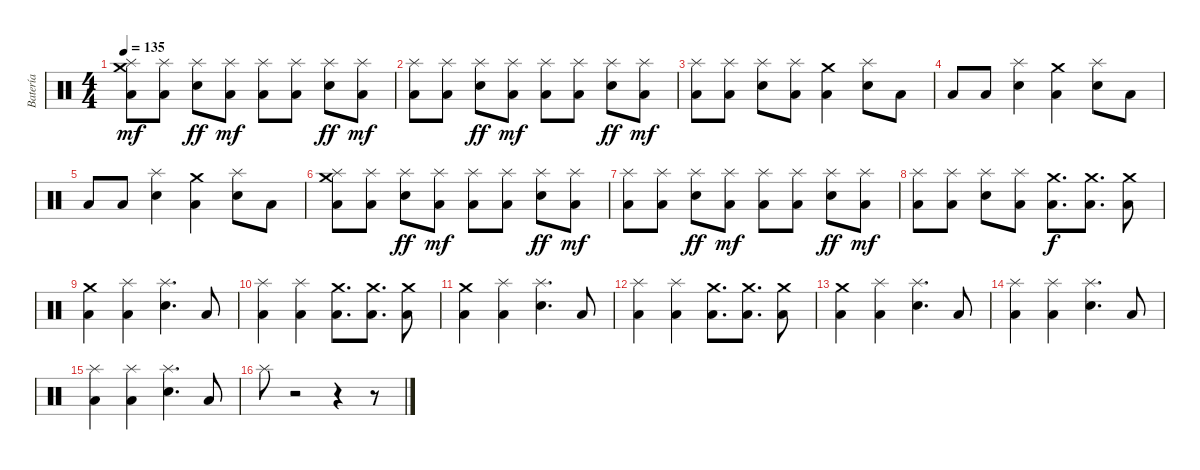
\track ("Batería" "Batería") {instrument percussion}
\staff {score}
\articulation defaults
\ts (4 4)
\tempo 135
\clef neutral
\ks c
("Crash medium (hit)" "Splash (hit)" "Low Floor Tom (hit)").8{dy mf} ("Splash (hit)" "Low Floor Tom (hit)").8 ("Splash (hit)" "Electric Snare (hit)").8{dy ff} ("Splash (hit)" "Low Floor Tom (hit)").8{dy mf} ("Splash (hit)" "Low Floor Tom (hit)").8 ("Splash (hit)" "Low Floor Tom (hit)").8 ("Splash (hit)" "Electric Snare (hit)").8{dy ff} ("Splash (hit)" "Low Floor Tom (hit)").8{dy mf} |
("Splash (hit)" "Low Floor Tom (hit)").8 ("Splash (hit)" "Low Floor Tom (hit)").8 ("Splash (hit)" "Electric Snare (hit)").8{dy ff} ("Splash (hit)" "Low Floor Tom (hit)").8{dy mf} ("Splash (hit)" "Low Floor Tom (hit)").8 ("Splash (hit)" "Low Floor Tom (hit)").8 ("Splash (hit)" "Electric Snare (hit)").8{dy ff} ("Splash (hit)" "Low Floor Tom (hit)").8{dy mf} |
("Splash (hit)" "Low Floor Tom (hit)").8 ("Splash (hit)" "Low Floor Tom (hit)").8 ("Splash (hit)" "Electric Snare (hit)").8 ("Splash (hit)" "Low Floor Tom (hit)").8 ("Crash medium (hit)" "Low Floor Tom (hit)").4 ("Splash (hit)" "Electric Snare (hit)").8 "Low Floor Tom (hit)".8 |
"Low Floor Tom (hit)".8 "Low Floor Tom (hit)".8 ("Splash (hit)" "Electric Snare (hit)").4 ("Crash medium (hit)" "Low Floor Tom (hit)").4 ("Splash (hit)" "Electric Snare (hit)").8 "Low Floor Tom (hit)".8 |
"Low Floor Tom (hit)".8 "Low Floor Tom (hit)".8 ("Splash (hit)" "Electric Snare (hit)").4 ("Crash medium (hit)" "Low Floor Tom (hit)").4 ("Splash (hit)" "Electric Snare (hit)").8 "Low Floor Tom (hit)".8 |
("Crash medium (hit)" "Splash (hit)" "Low Floor Tom (hit)").8 ("Splash (hit)" "Low Floor Tom (hit)").8 ("Splash (hit)" "Electric Snare (hit)").8{dy ff} ("Splash (hit)" "Low Floor Tom (hit)").8{dy mf} ("Splash (hit)" "Low Floor Tom (hit)").8 ("Splash (hit)" "Low Floor Tom (hit)").8 ("Splash (hit)" "Electric Snare (hit)").8{dy ff} ("Splash (hit)" "Low Floor Tom (hit)").8{dy mf} |
("Splash (hit)" "Low Floor Tom (hit)").8 ("Splash (hit)" "Low Floor Tom (hit)").8 ("Splash (hit)" "Electric Snare (hit)").8{dy ff} ("Splash (hit)" "Low Floor Tom (hit)").8{dy mf} ("Splash (hit)" "Low Floor Tom (hit)").8 ("Splash (hit)" "Low Floor Tom (hit)").8 ("Splash (hit)" "Electric Snare (hit)").8{dy ff} ("Splash (hit)" "Low Floor Tom (hit)").8{dy mf} |
("Splash (hit)" "Low Floor Tom (hit)").8 ("Splash (hit)" "Low Floor Tom (hit)").8 ("Splash (hit)" "Electric Snare (hit)").8 ("Splash (hit)" "Low Floor Tom (hit)").8 ("Crash medium (hit)" "Low Floor Tom (hit)").8{d dy f} ("Crash medium (hit)" "Low Floor Tom (hit)").8{d} ("Crash medium (hit)" "Low Floor Tom (hit)").8 |
("Crash medium (hit)" "Low Floor Tom (hit)").4 ("Splash (hit)" "Low Floor Tom (hit)").4 ("Splash (hit)" "Electric Snare (hit)").4{d} "Low Floor Tom (hit)".8 |
("Splash (hit)" "Low Floor Tom (hit)").4 ("Splash (hit)" "Low Floor Tom (hit)").4 ("Crash medium (hit)" "Low Floor Tom (hit)").8{d} ("Crash medium (hit)" "Low Floor Tom (hit)").8{d} ("Crash medium (hit)" "Low Floor Tom (hit)").8 |
("Crash medium (hit)" "Low Floor Tom (hit)").4 ("Splash (hit)" "Low Floor Tom (hit)").4 ("Splash (hit)" "Electric Snare (hit)").4{d} "Low Floor Tom (hit)".8 |
("Splash (hit)" "Low Floor Tom (hit)").4 ("Splash (hit)" "Low Floor Tom (hit)").4 ("Crash medium (hit)" "Low Floor Tom (hit)").8{d} ("Crash medium (hit)" "Low Floor Tom (hit)").8{d} ("Crash medium (hit)" "Low Floor Tom (hit)").8 |
("Crash medium (hit)" "Low Floor Tom (hit)").4 ("Splash (hit)" "Low Floor Tom (hit)").4 ("Splash (hit)" "Electric Snare (hit)").4{d} "Low Floor Tom (hit)".8 |
("Splash (hit)" "Low Floor Tom (hit)").4 ("Splash (hit)" "Low Floor Tom (hit)").4 ("Splash (hit)" "Electric Snare (hit)").4{d} "Low Floor Tom (hit)".8 |
("Splash (hit)" "Low Floor Tom (hit)").4 ("Splash (hit)" "Low Floor Tom (hit)").4 ("Splash (hit)" "Electric Snare (hit)").4{d} "Low Floor Tom (hit)".8 |
"Splash (hit)".8 r.2 r.4 r.8
